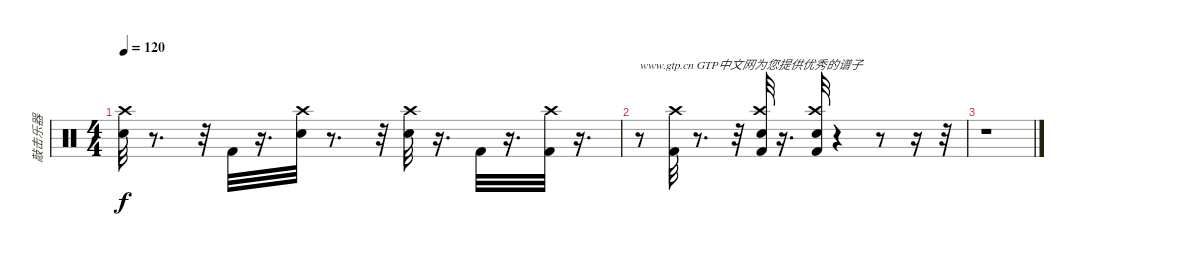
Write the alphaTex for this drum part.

\track ("敲击乐器" "敲击乐器") {instrument percussion}
\staff {score}
\articulation defaults
\ts (4 4)
\tempo 120
\clef neutral
\ks c
("Snare (hit) 2" "Crash high (hit)").32{dy f} r.8{d} r.32 "Kick (hit) 2".32 r.16{d} ("Snare (hit) 2" "Crash high (hit)").32 r.8{d} r.32 ("Snare (hit) 2" "Crash high (hit)").32 r.16{d} "Kick (hit) 2".32 r.16{d} ("Crash high (hit)" "Kick (hit) 2").32 r.16{d} |
r.8{txt "www.gtp.cn GTP中文网为您提供优秀的谱子"} ("Kick (hit) 2" "Crash high (hit)").32 r.8{d} r.32 ("Snare (hit) 2" "Crash high (hit)" "Kick (hit) 2").32 r.16{d} ("Kick (hit) 2" "Snare (hit) 2" "Crash high (hit)").32 r.4 r.8 r.16 r.32 |
r.1
